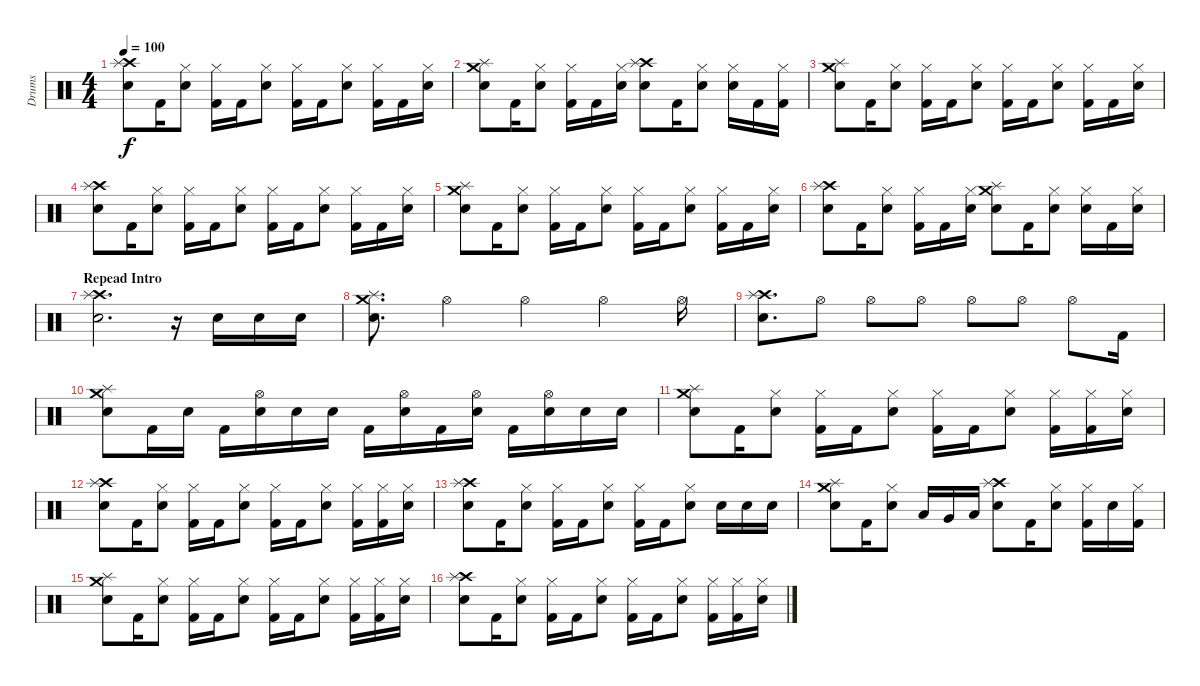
\track ("Drums" "Drums") {instrument percussion}
\staff {score}
\articulation defaults
\ts (4 4)
\tempo 100
\clef neutral
\ks c
("Crash high (hit)" "Splash (hit)" "Snare (hit) 2").8{dy f} "Kick (hit) 2".16 ("Hi-Hat (closed)" "Snare (hit) 2").8 ("Hi-Hat (closed)" "Kick (hit) 2").16 "Kick (hit) 2".16 ("Hi-Hat (closed)" "Snare (hit) 2").8 ("Hi-Hat (closed)" "Kick (hit) 2").16 "Kick (hit) 2".16 ("Hi-Hat (closed)" "Snare (hit) 2").8 ("Hi-Hat (closed)" "Kick (hit) 2").16 "Kick (hit) 2".16 ("Hi-Hat (closed)" "Snare (hit) 2").16 |
("Crash medium (hit)" "Splash (hit)" "Snare (hit) 2").8 "Kick (hit) 2".16 ("Hi-Hat (closed)" "Snare (hit) 2").8 ("Hi-Hat (closed)" "Kick (hit) 2").16 "Kick (hit) 2".16 ("Hi-Hat (closed)" "Snare (hit) 2").16 ("Crash high (hit)" "Splash (hit)" "Snare (hit) 2").8 "Kick (hit) 2".16 ("Hi-Hat (closed)" "Snare (hit) 2").8 ("Hi-Hat (closed)" "Snare (hit) 2").16 "Kick (hit) 2".16 ("Hi-Hat (closed)" "Kick (hit) 2").16 |
("Crash medium (hit)" "Splash (hit)" "Snare (hit) 2").8 "Kick (hit) 2".16 ("Hi-Hat (closed)" "Snare (hit) 2").8 ("Hi-Hat (closed)" "Kick (hit) 2").16 "Kick (hit) 2".16 ("Hi-Hat (closed)" "Snare (hit) 2").8 ("Hi-Hat (closed)" "Kick (hit) 2").16 "Kick (hit) 2".16 ("Hi-Hat (closed)" "Snare (hit) 2").8 ("Hi-Hat (closed)" "Kick (hit) 2").16 "Kick (hit) 2".16 ("Hi-Hat (closed)" "Snare (hit) 2").16 |
("Crash high (hit)" "Splash (hit)" "Snare (hit) 2").8 "Kick (hit) 2".16 ("Hi-Hat (closed)" "Snare (hit) 2").8 ("Hi-Hat (closed)" "Kick (hit) 2").16 "Kick (hit) 2".16 ("Hi-Hat (closed)" "Snare (hit) 2").8 ("Hi-Hat (closed)" "Kick (hit) 2").16 "Kick (hit) 2".16 ("Hi-Hat (closed)" "Snare (hit) 2").8 ("Hi-Hat (closed)" "Kick (hit) 2").16 "Kick (hit) 2".16 ("Hi-Hat (closed)" "Snare (hit) 2").16 |
("Crash medium (hit)" "Splash (hit)" "Snare (hit) 2").8 "Kick (hit) 2".16 ("Hi-Hat (closed)" "Snare (hit) 2").8 ("Hi-Hat (closed)" "Kick (hit) 2").16 "Kick (hit) 2".16 ("Hi-Hat (closed)" "Snare (hit) 2").8 ("Hi-Hat (closed)" "Kick (hit) 2").16 "Kick (hit) 2".16 ("Hi-Hat (closed)" "Snare (hit) 2").8 ("Hi-Hat (closed)" "Kick (hit) 2").16 "Kick (hit) 2".16 ("Hi-Hat (closed)" "Snare (hit) 2").16 |
("Crash high (hit)" "Splash (hit)" "Snare (hit) 2").8 "Kick (hit) 2".16 ("Hi-Hat (closed)" "Snare (hit) 2").8 ("Hi-Hat (closed)" "Kick (hit) 2").16 "Kick (hit) 2".16 ("Hi-Hat (closed)" "Snare (hit) 2").16 ("Crash medium (hit)" "Splash (hit)" "Snare (hit) 2").8 "Kick (hit) 2".16 ("Hi-Hat (closed)" "Snare (hit) 2").8 ("Hi-Hat (closed)" "Snare (hit) 2").16 "Kick (hit) 2".16 ("Hi-Hat (closed)" "Snare (hit) 2").16 |
\section ("" "Repead Intro")
("Crash high (hit)" "Splash (hit)" "Snare (hit) 2").2{d} r.16 "Snare (hit) 2".16 "Snare (hit) 2".16 "Snare (hit) 2".16 |
("Crash medium (hit)" "Splash (hit)" "Snare (hit) 2").8{d} "Hi-Hat (open)".4 "Hi-Hat (open)".4 "Hi-Hat (open)".4 "Hi-Hat (open)".16 |
("Crash high (hit)" "Splash (hit)" "Snare (hit) 2").8{d} "Hi-Hat (open)".8 "Hi-Hat (open)".8 "Hi-Hat (open)".8 "Hi-Hat (open)".8 "Hi-Hat (open)".8 "Hi-Hat (open)".8 "Kick (hit) 2".16 |
("Crash medium (hit)" "Splash (hit)" "Snare (hit) 2").8 "Kick (hit) 2".16 "Snare (hit) 2".16 "Kick (hit) 2".16 ("Hi-Hat (open)" "Snare (hit) 2").16 "Snare (hit) 2".16 "Snare (hit) 2".16 "Kick (hit) 2".16 ("Hi-Hat (open)" "Snare (hit) 2").16 "Kick (hit) 2".16 ("Hi-Hat (open)" "Snare (hit) 2").16 "Kick (hit) 2".16 ("Hi-Hat (open)" "Snare (hit) 2").16 "Snare (hit) 2".16 "Snare (hit) 2".16 |
("Crash medium (hit)" "Splash (hit)" "Snare (hit) 2").8 "Kick (hit) 2".16 ("Hi-Hat (closed)" "Snare (hit) 2").8 ("Hi-Hat (closed)" "Kick (hit) 2").16 "Kick (hit) 2".16 ("Hi-Hat (closed)" "Snare (hit) 2").8 ("Hi-Hat (closed)" "Kick (hit) 2").16 "Kick (hit) 2".16 ("Hi-Hat (closed)" "Snare (hit) 2").8 ("Hi-Hat (closed)" "Kick (hit) 2").16 ("Hi-Hat (closed)" "Kick (hit) 2").16 ("Hi-Hat (closed)" "Snare (hit) 2").16 |
("Crash high (hit)" "Splash (hit)" "Snare (hit) 2").8 "Kick (hit) 2".16 ("Hi-Hat (closed)" "Snare (hit) 2").8 ("Hi-Hat (closed)" "Kick (hit) 2").16 "Kick (hit) 2".16 ("Hi-Hat (closed)" "Snare (hit) 2").8 ("Hi-Hat (closed)" "Kick (hit) 2").16 "Kick (hit) 2".16 ("Hi-Hat (closed)" "Snare (hit) 2").8 ("Hi-Hat (closed)" "Kick (hit) 2").16 ("Hi-Hat (closed)" "Kick (hit) 2").16 ("Hi-Hat (closed)" "Snare (hit) 2").16 |
("Crash high (hit)" "Splash (hit)" "Snare (hit) 2").8 "Kick (hit) 2".16 ("Hi-Hat (closed)" "Snare (hit) 2").8 ("Hi-Hat (closed)" "Kick (hit) 2").16 "Kick (hit) 2".16 ("Hi-Hat (closed)" "Snare (hit) 2").8 ("Hi-Hat (closed)" "Kick (hit) 2").16 "Kick (hit) 2".16 ("Hi-Hat (closed)" "Snare (hit) 2").8 "Snare (hit) 2".16 "Snare (hit) 2".16 "Snare (hit) 2".16 |
("Crash medium (hit)" "Splash (hit)" "Snare (hit) 2").8 "Kick (hit) 2".16 ("Hi-Hat (closed)" "Snare (hit) 2").8 "Low Tom (hit)".16 "Very Low Tom (hit)".16 "Low Floor Tom (hit)".16 ("Crash high (hit)" "Splash (hit)" "Snare (hit) 2").8 "Kick (hit) 2".16 ("Hi-Hat (closed)" "Snare (hit) 2").8 ("Hi-Hat (closed)" "Kick (hit) 2").16 "Snare (hit) 2".16 ("Hi-Hat (closed)" "Kick (hit) 2").16 |
("Crash medium (hit)" "Splash (hit)" "Snare (hit) 2").8 "Kick (hit) 2".16 ("Hi-Hat (closed)" "Snare (hit) 2").8 ("Hi-Hat (closed)" "Kick (hit) 2").16 "Kick (hit) 2".16 ("Hi-Hat (closed)" "Snare (hit) 2").8 ("Hi-Hat (closed)" "Kick (hit) 2").16 "Kick (hit) 2".16 ("Hi-Hat (closed)" "Snare (hit) 2").8 ("Hi-Hat (closed)" "Kick (hit) 2").16 ("Hi-Hat (closed)" "Kick (hit) 2").16 ("Hi-Hat (closed)" "Snare (hit) 2").16 |
("Crash high (hit)" "Splash (hit)" "Snare (hit) 2").8 "Kick (hit) 2".16 ("Hi-Hat (closed)" "Snare (hit) 2").8 ("Hi-Hat (closed)" "Kick (hit) 2").16 "Kick (hit) 2".16 ("Hi-Hat (closed)" "Snare (hit) 2").8 ("Hi-Hat (closed)" "Kick (hit) 2").16 "Kick (hit) 2".16 ("Hi-Hat (closed)" "Snare (hit) 2").8 ("Hi-Hat (closed)" "Kick (hit) 2").16 ("Hi-Hat (closed)" "Kick (hit) 2").16 ("Hi-Hat (closed)" "Snare (hit) 2").16
